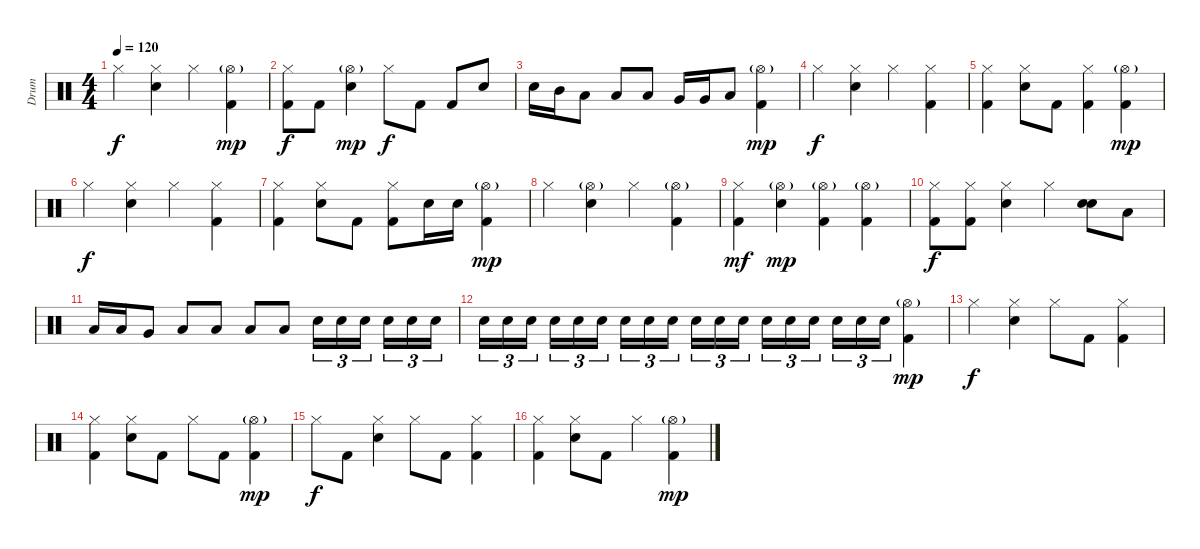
\track ("Drum" "Drum") {instrument percussion}
\staff {score}
\articulation defaults
\ts (4 4)
\tempo 120
\clef neutral
\ks c "Hi-Hat (closed)".4{dy f}
("Hi-Hat (closed)" "Electric Snare (hit)").4 "Hi-Hat (closed)".4 ("Hi-Hat (open)"{g} "Kick (hit) 2").4{dy mp} |
("Hi-Hat (closed)" "Kick (hit) 2").8{dy f} "Kick (hit) 2".8 ("Hi-Hat (open)"{g} "Electric Snare (hit)").4{dy mp} "Hi-Hat (closed)".8{dy f} "Kick (hit) 2".8 "Kick (hit) 2".8 "Electric Snare (hit)".8 |
"Electric Snare (hit)".16 "Mid Tom (hit)".16 "Low Tom (hit)".8 "Low Tom (hit)".8 "Low Tom (hit)".8 "Very Low Tom (hit)".16 "Very Low Tom (hit)".16 "Low Floor Tom (hit)".8 ("Hi-Hat (open)"{g} "Kick (hit) 2").4{dy mp} |
"Hi-Hat (closed)".4{dy f} ("Hi-Hat (closed)" "Electric Snare (hit)").4 "Hi-Hat (closed)".4 ("Hi-Hat (closed)" "Kick (hit) 2").4 |
("Hi-Hat (closed)" "Kick (hit) 2").4 ("Hi-Hat (closed)" "Electric Snare (hit)").8 "Kick (hit) 2".8 ("Hi-Hat (closed)" "Kick (hit) 2").4 ("Hi-Hat (open)"{g} "Kick (hit) 2").4{dy mp} |
"Hi-Hat (closed)".4{dy f} ("Hi-Hat (closed)" "Electric Snare (hit)").4 "Hi-Hat (closed)".4 ("Hi-Hat (closed)" "Kick (hit) 2").4 |
("Hi-Hat (closed)" "Kick (hit) 2").4 ("Hi-Hat (closed)" "Electric Snare (hit)").8 "Kick (hit) 2".8 ("Hi-Hat (closed)" "Kick (hit) 2").8 "Electric Snare (hit)".16 "Electric Snare (hit)".16 ("Hi-Hat (open)"{g} "Kick (hit) 2").4{dy mp} |
"Hi-Hat (closed)".4 ("Hi-Hat (open)"{g} "Electric Snare (hit)").4 "Hi-Hat (closed)".4 ("Hi-Hat (open)"{g} "Kick (hit) 2").4 |
("Hi-Hat (closed)" "Kick (hit) 2").4{dy mf} ("Hi-Hat (open)"{g} "Electric Snare (hit)").4{dy mp} ("Hi-Hat (open)"{g} "Kick (hit) 2").4 ("Hi-Hat (open)"{g} "Kick (hit) 2").4 |
("Hi-Hat (closed)" "Kick (hit) 2").8{dy f} ("Hi-Hat (closed)" "Kick (hit) 2").8 ("Hi-Hat (closed)" "Electric Snare (hit)").4 "Hi-Hat (closed)".4 ("Electric Snare (hit)" "Electric Snare (hit)").8{bd 240} "Low Tom (hit)".8 |
"Low Tom (hit)".16 "Low Tom (hit)".16 "Very Low Tom (hit)".8 "Low Floor Tom (hit)".8 "Low Floor Tom (hit)".8 "Low Floor Tom (hit)".8 "Low Floor Tom (hit)".8 "Electric Snare (hit)".16{tu (3 2)} "Electric Snare (hit)".16{tu (3 2)} "Electric Snare (hit)".16{tu (3 2)} "Electric Snare (hit)".16{tu (3 2)} "Electric Snare (hit)".16{tu (3 2)} "Electric Snare (hit)".16{tu (3 2)} |
"Electric Snare (hit)".16{tu (3 2)} "Electric Snare (hit)".16{tu (3 2)} "Electric Snare (hit)".16{tu (3 2)} "Electric Snare (hit)".16{tu (3 2)} "Electric Snare (hit)".16{tu (3 2)} "Electric Snare (hit)".16{tu (3 2)} "Electric Snare (hit)".16{tu (3 2)} "Electric Snare (hit)".16{tu (3 2)} "Electric Snare (hit)".16{tu (3 2)} "Electric Snare (hit)".16{tu (3 2)} "Electric Snare (hit)".16{tu (3 2)} "Electric Snare (hit)".16{tu (3 2)} "Electric Snare (hit)".16{tu (3 2)} "Electric Snare (hit)".16{tu (3 2)} "Electric Snare (hit)".16{tu (3 2)} "Electric Snare (hit)".16{tu (3 2)} "Electric Snare (hit)".16{tu (3 2)} "Electric Snare (hit)".16{tu (3 2)} ("Hi-Hat (open)"{g} "Kick (hit) 2").4{dy mp} |
"Hi-Hat (closed)".4{dy f} ("Hi-Hat (closed)" "Electric Snare (hit)").4 "Hi-Hat (closed)".8 "Kick (hit) 2".8 ("Hi-Hat (closed)" "Kick (hit) 2").4 |
("Hi-Hat (closed)" "Kick (hit) 2").4 ("Hi-Hat (closed)" "Electric Snare (hit)").8 "Kick (hit) 2".8 "Hi-Hat (closed)".8 "Kick (hit) 2".8 ("Hi-Hat (open)"{g} "Kick (hit) 2").4{dy mp} |
"Hi-Hat (closed)".8{dy f} "Kick (hit) 2".8 ("Hi-Hat (closed)" "Electric Snare (hit)").4 "Hi-Hat (closed)".8 "Kick (hit) 2".8 ("Hi-Hat (closed)" "Kick (hit) 2").4 |
("Hi-Hat (closed)" "Kick (hit) 2").4 ("Hi-Hat (closed)" "Electric Snare (hit)").8 "Kick (hit) 2".8 "Hi-Hat (closed)".4 ("Hi-Hat (open)"{g} "Kick (hit) 2").4{dy mp}
